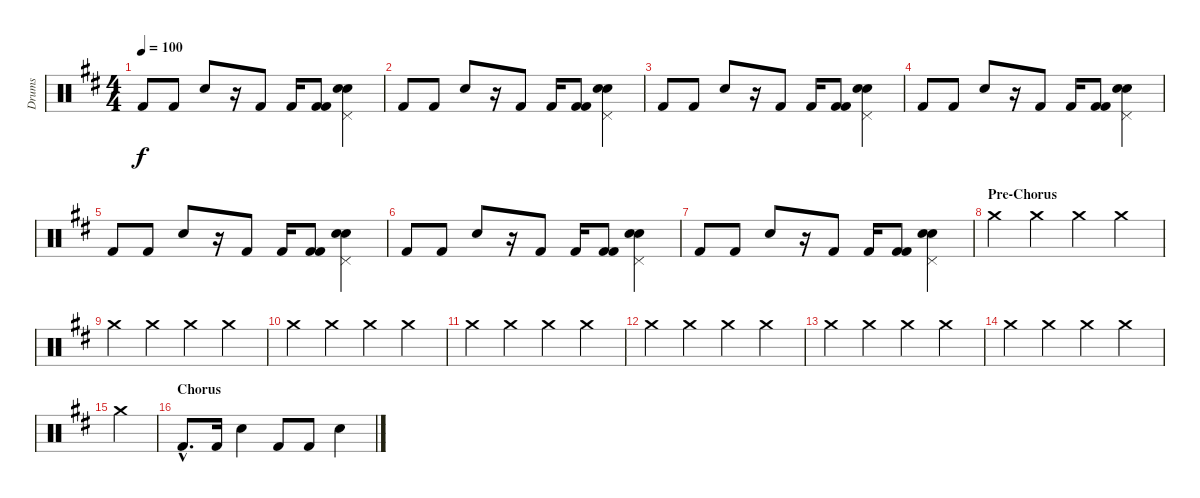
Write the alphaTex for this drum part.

\track ("Drums" "Drums") {instrument percussion}
\staff {score}
\articulation defaults
\ts (4 4)
\tempo 100
\clef neutral
\ks d "Kick (hit) 2".8{dy f} "Kick (hit) 2".8 "Snare (hit) 2".8
r.16 "Kick (hit) 2".8 "Kick (hit) 2".16 ("Kick (hit) 2" "Kick (hit) 2").8 ("Snare (hit) 2" "Pedal Hi-Hat (hit)" "Electric Snare (hit)").4 |
"Kick (hit) 2".8 "Kick (hit) 2".8 "Snare (hit) 2".8 r.16 "Kick (hit) 2".8 "Kick (hit) 2".16 ("Kick (hit) 2" "Kick (hit) 2").8 ("Snare (hit) 2" "Pedal Hi-Hat (hit)" "Electric Snare (hit)").4 |
"Kick (hit) 2".8 "Kick (hit) 2".8 "Snare (hit) 2".8 r.16 "Kick (hit) 2".8 "Kick (hit) 2".16 ("Kick (hit) 2" "Kick (hit) 2").8 ("Snare (hit) 2" "Pedal Hi-Hat (hit)" "Electric Snare (hit)").4 |
"Kick (hit) 2".8 "Kick (hit) 2".8 "Snare (hit) 2".8 r.16 "Kick (hit) 2".8 "Kick (hit) 2".16 ("Kick (hit) 2" "Kick (hit) 2").8 ("Snare (hit) 2" "Pedal Hi-Hat (hit)" "Electric Snare (hit)").4 |
"Kick (hit) 2".8 "Kick (hit) 2".8 "Snare (hit) 2".8 r.16 "Kick (hit) 2".8 "Kick (hit) 2".16 ("Kick (hit) 2" "Kick (hit) 2").8 ("Snare (hit) 2" "Pedal Hi-Hat (hit)" "Electric Snare (hit)").4 |
"Kick (hit) 2".8 "Kick (hit) 2".8 "Snare (hit) 2".8 r.16 "Kick (hit) 2".8 "Kick (hit) 2".16 ("Kick (hit) 2" "Kick (hit) 2").8 ("Snare (hit) 2" "Pedal Hi-Hat (hit)" "Electric Snare (hit)").4 |
"Kick (hit) 2".8 "Kick (hit) 2".8 "Snare (hit) 2".8 r.16 "Kick (hit) 2".8 "Kick (hit) 2".16 ("Kick (hit) 2" "Kick (hit) 2").8 ("Snare (hit) 2" "Pedal Hi-Hat (hit)" "Electric Snare (hit)").4 |
\section ("" "Pre-Chorus")
"Crash medium (hit)".4 "Crash medium (hit)".4 "Crash medium (hit)".4 "Crash medium (hit)".4 |
"Crash medium (hit)".4 "Crash medium (hit)".4 "Crash medium (hit)".4 "Crash medium (hit)".4 |
"Crash medium (hit)".4 "Crash medium (hit)".4 "Crash medium (hit)".4 "Crash medium (hit)".4 |
"Crash medium (hit)".4 "Crash medium (hit)".4 "Crash medium (hit)".4 "Crash medium (hit)".4 |
"Crash medium (hit)".4 "Crash medium (hit)".4 "Crash medium (hit)".4 "Crash medium (hit)".4 |
"Crash medium (hit)".4 "Crash medium (hit)".4 "Crash medium (hit)".4 "Crash medium (hit)".4 |
"Crash medium (hit)".4 "Crash medium (hit)".4 "Crash medium (hit)".4 "Crash medium (hit)".4 |
"Crash medium (hit)".4 |
\section ("" "Chorus")
"Kick (hit) 2"{hac}.8{d} "Kick (hit) 2".16 "Snare (hit) 2".4 "Kick (hit) 2".8 "Kick (hit) 2".8 "Snare (hit) 2".4
